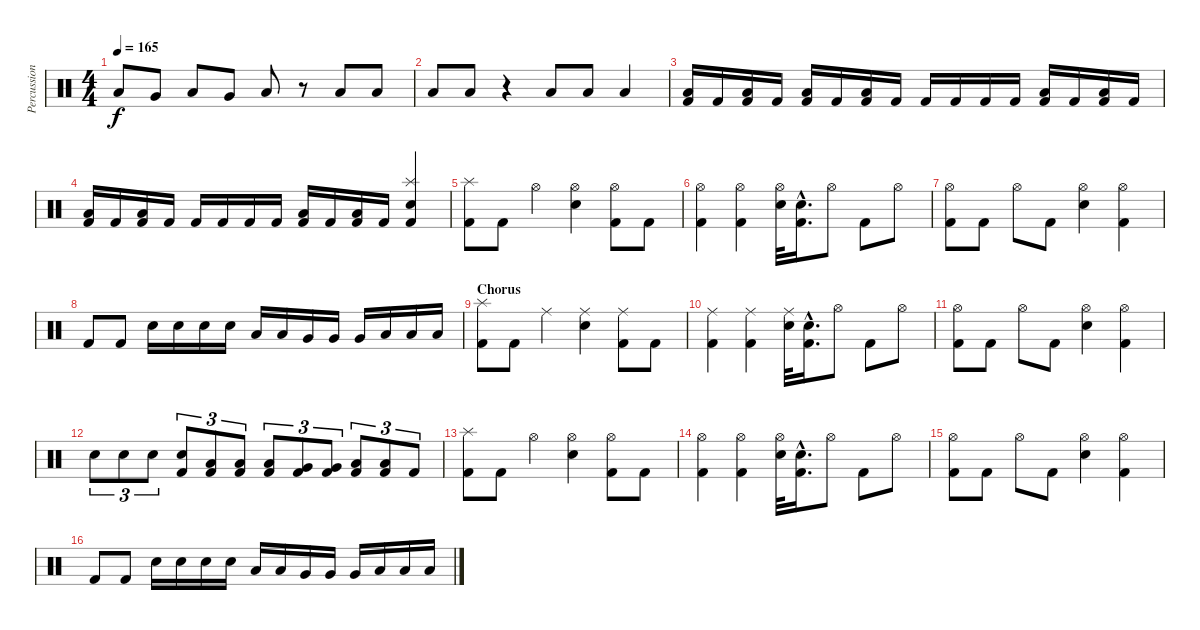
\track ("Percussions" "Percussion") {instrument percussion}
\staff {score}
\articulation defaults
\ts (4 4)
\tempo 165
\clef neutral
\ks c "Low Floor Tom (hit)".8{dy f} "Very Low Tom (hit)".8 "Low Floor Tom (hit)".8 "Very Low Tom (hit)".8 "Low Floor Tom (hit)".8
r.8 "Low Floor Tom (hit)".8 "Low Floor Tom (hit)".8 |
"Low Floor Tom (hit)".8 "Low Floor Tom (hit)".8 r.4 "Low Floor Tom (hit)".8 "Low Floor Tom (hit)".8 "Low Floor Tom (hit)".4 |
("Low Floor Tom (hit)" "Kick (hit) 2").16 "Kick (hit) 2".16 ("Low Floor Tom (hit)" "Kick (hit) 2").16 "Kick (hit) 2".16 ("Low Floor Tom (hit)" "Kick (hit) 2").16 "Kick (hit) 2".16 ("Low Floor Tom (hit)" "Kick (hit) 2").16 "Kick (hit) 2".16 "Kick (hit) 2".16 "Kick (hit) 2".16 "Kick (hit) 2".16 "Kick (hit) 2".16 ("Low Floor Tom (hit)" "Kick (hit) 2").16 "Kick (hit) 2".16 ("Low Floor Tom (hit)" "Kick (hit) 2").16 "Kick (hit) 2".16 |
("Low Floor Tom (hit)" "Kick (hit) 2").16 "Kick (hit) 2".16 ("Low Floor Tom (hit)" "Kick (hit) 2").16 "Kick (hit) 2".16 "Kick (hit) 2".16 "Kick (hit) 2".16 "Kick (hit) 2".16 "Kick (hit) 2".16 ("Low Floor Tom (hit)" "Kick (hit) 2").16 "Kick (hit) 2".16 ("Low Floor Tom (hit)" "Kick (hit) 2").16 "Kick (hit) 2".16 ("Splash (hit)" "Electric Snare (hit)" "Kick (hit) 2").4 |
("Splash (hit)" "Kick (hit) 2").8 "Kick (hit) 2".8 "Hi-Hat (open)".4 ("Hi-Hat (open)" "Electric Snare (hit)").4 ("Hi-Hat (open)" "Kick (hit) 2").8 "Kick (hit) 2".8 |
("Hi-Hat (open)" "Kick (hit) 2").4 ("Hi-Hat (open)" "Kick (hit) 2").4 ("Hi-Hat (open)" "Electric Snare (hit)").32 ("Electric Snare (hit)"{hac} "Kick (hit) 2"{hac}).16{d} "Hi-Hat (open)".8 "Kick (hit) 2".8 "Hi-Hat (open)".8 |
("Hi-Hat (open)" "Kick (hit) 2").8 "Kick (hit) 2".8 "Hi-Hat (open)".8 "Kick (hit) 2".8 ("Hi-Hat (open)" "Electric Snare (hit)").4 ("Hi-Hat (open)" "Kick (hit) 2").4 |
"Kick (hit) 2".8 "Kick (hit) 2".8 "Electric Snare (hit)".16 "Electric Snare (hit)".16 "Electric Snare (hit)".16 "Electric Snare (hit)".16 "Low Tom (hit)".16 "Low Tom (hit)".16 "Very Low Tom (hit)".16 "Very Low Tom (hit)".16 "Very Low Tom (hit)".16 "Low Floor Tom (hit)".16 "Low Floor Tom (hit)".16 "Low Floor Tom (hit)".16 |
\section ("" "Chorus")
("Splash (hit)" "Kick (hit) 2").8 "Kick (hit) 2".8 "Ride (middle)".4 ("Ride (middle)" "Electric Snare (hit)").4 ("Ride (middle)" "Kick (hit) 2").8 "Kick (hit) 2".8 |
("Ride (middle)" "Kick (hit) 2").4 ("Ride (middle)" "Kick (hit) 2").4 ("Ride (middle)" "Electric Snare (hit)").32 ("Electric Snare (hit)"{hac} "Kick (hit) 2"{hac}).16{d} "Hi-Hat (open)".8 "Kick (hit) 2".8 "Hi-Hat (open)".8 |
("Hi-Hat (open)" "Kick (hit) 2").8 "Kick (hit) 2".8 "Hi-Hat (open)".8 "Kick (hit) 2".8 ("Hi-Hat (open)" "Electric Snare (hit)").4 ("Hi-Hat (open)" "Kick (hit) 2").4 |
"Electric Snare (hit)".8{tu (3 2)} "Electric Snare (hit)".8{tu (3 2)} "Electric Snare (hit)".8{tu (3 2)} ("Electric Snare (hit)" "Kick (hit) 2").8{tu (3 2)} ("Low Tom (hit)" "Kick (hit) 2").8{tu (3 2)} ("Low Tom (hit)" "Kick (hit) 2").8{tu (3 2)} ("Low Tom (hit)" "Kick (hit) 2").8{tu (3 2)} ("Very Low Tom (hit)" "Kick (hit) 2").8{tu (3 2)} ("Very Low Tom (hit)" "Kick (hit) 2").8{tu (3 2)} ("Low Floor Tom (hit)" "Kick (hit) 2").8{tu (3 2)} ("Low Floor Tom (hit)" "Kick (hit) 2").8{tu (3 2)} "Kick (hit) 2".8{tu (3 2)} |
("Splash (hit)" "Kick (hit) 2").8 "Kick (hit) 2".8 "Hi-Hat (open)".4 ("Hi-Hat (open)" "Electric Snare (hit)").4 ("Hi-Hat (open)" "Kick (hit) 2").8 "Kick (hit) 2".8 |
("Hi-Hat (open)" "Kick (hit) 2").4 ("Hi-Hat (open)" "Kick (hit) 2").4 ("Hi-Hat (open)" "Electric Snare (hit)").32 ("Electric Snare (hit)"{hac} "Kick (hit) 2"{hac}).16{d} "Hi-Hat (open)".8 "Kick (hit) 2".8 "Hi-Hat (open)".8 |
("Hi-Hat (open)" "Kick (hit) 2").8 "Kick (hit) 2".8 "Hi-Hat (open)".8 "Kick (hit) 2".8 ("Hi-Hat (open)" "Electric Snare (hit)").4 ("Hi-Hat (open)" "Kick (hit) 2").4 |
"Kick (hit) 2".8 "Kick (hit) 2".8 "Electric Snare (hit)".16 "Electric Snare (hit)".16 "Electric Snare (hit)".16 "Electric Snare (hit)".16 "Low Tom (hit)".16 "Low Tom (hit)".16 "Very Low Tom (hit)".16 "Very Low Tom (hit)".16 "Very Low Tom (hit)".16 "Low Floor Tom (hit)".16 "Low Floor Tom (hit)".16 "Low Floor Tom (hit)".16
